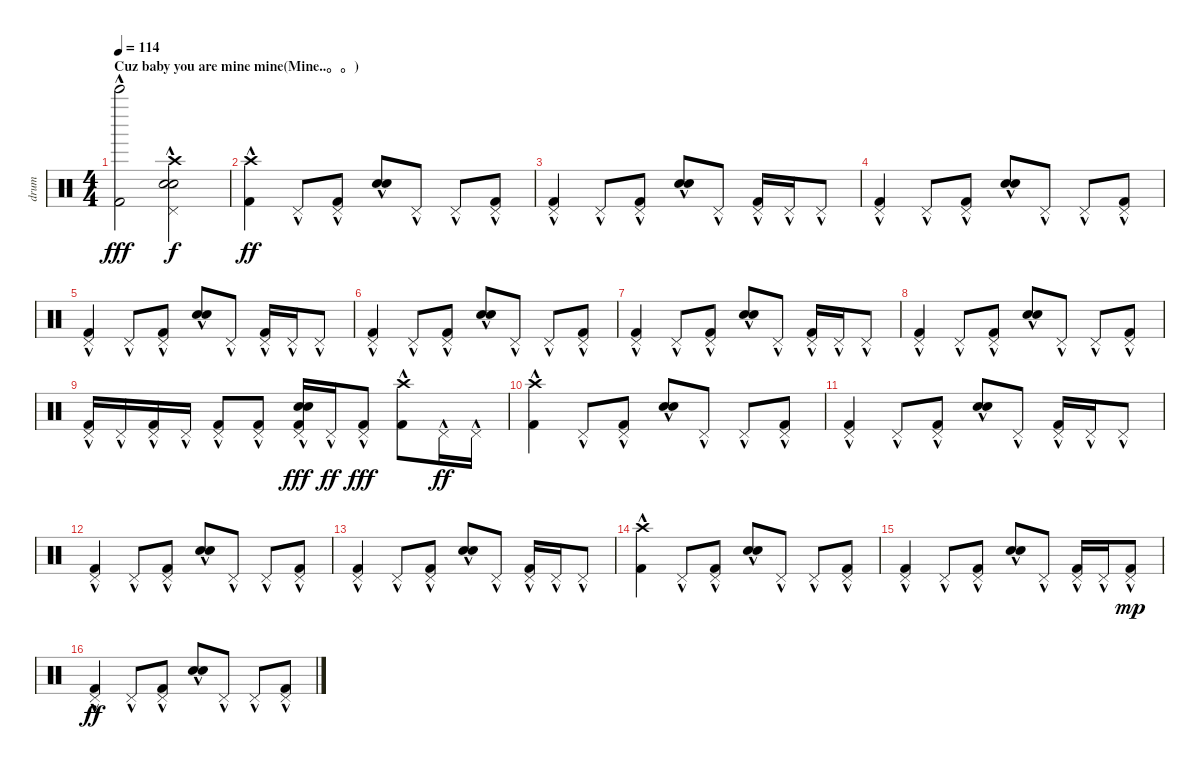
\track ("drum" "drum") {instrument percussion}
\staff {score}
\articulation defaults
\ts (4 4)
\section ("" "Cuz baby you are mine mine(Mine..。。)")
\tempo 114
\clef neutral
\ks c
("Bell Tree (hit)"{hac} "Kick (hit) 2"{hac}).2{dy fff} ("Crash high (hit)"{hac} "Pedal Hi-Hat (hit)"{hac} "Hand Clap (hit)"{hac} "Snare (hit) 2"{hac}).2{dy f} |
("Crash high (hit)"{hac} "Kick (hit) 2"{hac}).4{dy ff} "Pedal Hi-Hat (hit)"{hac}.8 ("Pedal Hi-Hat (hit)"{hac} "Kick (hit) 2"{hac}).8 ("Snare (hit) 2"{hac} "Hand Clap (hit)"{hac}).8 "Pedal Hi-Hat (hit)"{hac}.8 "Pedal Hi-Hat (hit)"{hac}.8 ("Pedal Hi-Hat (hit)"{hac} "Kick (hit) 2"{hac}).8 |
("Pedal Hi-Hat (hit)"{hac} "Kick (hit) 2"{hac}).4 "Pedal Hi-Hat (hit)"{hac}.8 ("Pedal Hi-Hat (hit)"{hac} "Kick (hit) 2"{hac}).8 ("Snare (hit) 2"{hac} "Hand Clap (hit)"{hac}).8 "Pedal Hi-Hat (hit)"{hac}.8 ("Pedal Hi-Hat (hit)"{hac} "Kick (hit) 2"{hac}).16 "Pedal Hi-Hat (hit)"{hac}.16 "Pedal Hi-Hat (hit)"{hac}.8 |
("Pedal Hi-Hat (hit)"{hac} "Kick (hit) 2"{hac}).4 "Pedal Hi-Hat (hit)"{hac}.8 ("Pedal Hi-Hat (hit)"{hac} "Kick (hit) 2"{hac}).8 ("Snare (hit) 2"{hac} "Hand Clap (hit)"{hac}).8 "Pedal Hi-Hat (hit)"{hac}.8 "Pedal Hi-Hat (hit)"{hac}.8 ("Pedal Hi-Hat (hit)"{hac} "Kick (hit) 2"{hac}).8 |
("Pedal Hi-Hat (hit)"{hac} "Kick (hit) 2"{hac}).4 "Pedal Hi-Hat (hit)"{hac}.8 ("Pedal Hi-Hat (hit)"{hac} "Kick (hit) 2"{hac}).8 ("Snare (hit) 2"{hac} "Hand Clap (hit)"{hac}).8 "Pedal Hi-Hat (hit)"{hac}.8 ("Pedal Hi-Hat (hit)"{hac} "Kick (hit) 2"{hac}).16 "Pedal Hi-Hat (hit)"{hac}.16 "Pedal Hi-Hat (hit)"{hac}.8 |
("Pedal Hi-Hat (hit)"{hac} "Kick (hit) 2"{hac}).4 "Pedal Hi-Hat (hit)"{hac}.8 ("Pedal Hi-Hat (hit)"{hac} "Kick (hit) 2"{hac}).8 ("Snare (hit) 2"{hac} "Hand Clap (hit)"{hac}).8 "Pedal Hi-Hat (hit)"{hac}.8 "Pedal Hi-Hat (hit)"{hac}.8 ("Pedal Hi-Hat (hit)"{hac} "Kick (hit) 2"{hac}).8 |
("Pedal Hi-Hat (hit)"{hac} "Kick (hit) 2"{hac}).4 "Pedal Hi-Hat (hit)"{hac}.8 ("Pedal Hi-Hat (hit)"{hac} "Kick (hit) 2"{hac}).8 ("Snare (hit) 2"{hac} "Hand Clap (hit)"{hac}).8 "Pedal Hi-Hat (hit)"{hac}.8 ("Pedal Hi-Hat (hit)"{hac} "Kick (hit) 2"{hac}).16 "Pedal Hi-Hat (hit)"{hac}.16 "Pedal Hi-Hat (hit)"{hac}.8 |
("Pedal Hi-Hat (hit)"{hac} "Kick (hit) 2"{hac}).4 "Pedal Hi-Hat (hit)"{hac}.8 ("Pedal Hi-Hat (hit)"{hac} "Kick (hit) 2"{hac}).8 ("Snare (hit) 2"{hac} "Hand Clap (hit)"{hac}).8 "Pedal Hi-Hat (hit)"{hac}.8 "Pedal Hi-Hat (hit)"{hac}.8 ("Pedal Hi-Hat (hit)"{hac} "Kick (hit) 2"{hac}).8 |
("Pedal Hi-Hat (hit)"{hac} "Kick (hit) 2"{hac}).16 "Pedal Hi-Hat (hit)"{hac}.16 ("Pedal Hi-Hat (hit)"{hac} "Kick (hit) 2"{hac}).16 "Pedal Hi-Hat (hit)"{hac}.16 ("Pedal Hi-Hat (hit)"{hac} "Kick (hit) 2"{hac}).8 ("Pedal Hi-Hat (hit)"{hac} "Kick (hit) 2"{hac}).8 ("Pedal Hi-Hat (hit)"{hac} "Snare (hit) 2"{hac} "Hand Clap (hit)"{hac} "Kick (hit) 2"{hac}).16{dy fff} "Pedal Hi-Hat (hit)"{hac}.16{dy ff} ("Pedal Hi-Hat (hit)"{hac} "Kick (hit) 2"{hac}).8{dy fff} ("Crash high (hit)"{hac} "Kick (hit) 2"{hac}).8 "Pedal Hi-Hat (hit)"{hac}.16{dy ff} "Pedal Hi-Hat (hit)"{hac}.16 |
("Crash high (hit)"{hac} "Kick (hit) 2"{hac}).4 "Pedal Hi-Hat (hit)"{hac}.8 ("Pedal Hi-Hat (hit)"{hac} "Kick (hit) 2"{hac}).8 ("Snare (hit) 2"{hac} "Hand Clap (hit)"{hac}).8 "Pedal Hi-Hat (hit)"{hac}.8 "Pedal Hi-Hat (hit)"{hac}.8 ("Pedal Hi-Hat (hit)"{hac} "Kick (hit) 2"{hac}).8 |
("Pedal Hi-Hat (hit)"{hac} "Kick (hit) 2"{hac}).4 "Pedal Hi-Hat (hit)"{hac}.8 ("Pedal Hi-Hat (hit)"{hac} "Kick (hit) 2"{hac}).8 ("Snare (hit) 2"{hac} "Hand Clap (hit)"{hac}).8 "Pedal Hi-Hat (hit)"{hac}.8 ("Pedal Hi-Hat (hit)"{hac} "Kick (hit) 2"{hac}).16 "Pedal Hi-Hat (hit)"{hac}.16 "Pedal Hi-Hat (hit)"{hac}.8 |
("Pedal Hi-Hat (hit)"{hac} "Kick (hit) 2"{hac}).4 "Pedal Hi-Hat (hit)"{hac}.8 ("Pedal Hi-Hat (hit)"{hac} "Kick (hit) 2"{hac}).8 ("Snare (hit) 2"{hac} "Hand Clap (hit)"{hac}).8 "Pedal Hi-Hat (hit)"{hac}.8 "Pedal Hi-Hat (hit)"{hac}.8 ("Pedal Hi-Hat (hit)"{hac} "Kick (hit) 2"{hac}).8 |
("Pedal Hi-Hat (hit)"{hac} "Kick (hit) 2"{hac}).4 "Pedal Hi-Hat (hit)"{hac}.8 ("Pedal Hi-Hat (hit)"{hac} "Kick (hit) 2"{hac}).8 ("Snare (hit) 2"{hac} "Hand Clap (hit)"{hac}).8 "Pedal Hi-Hat (hit)"{hac}.8 ("Pedal Hi-Hat (hit)"{hac} "Kick (hit) 2"{hac}).16 "Pedal Hi-Hat (hit)"{hac}.16 "Pedal Hi-Hat (hit)"{hac}.8 |
("Crash high (hit)"{hac} "Kick (hit) 2"{hac}).4 "Pedal Hi-Hat (hit)"{hac}.8 ("Pedal Hi-Hat (hit)"{hac} "Kick (hit) 2"{hac}).8 ("Snare (hit) 2"{hac} "Hand Clap (hit)"{hac}).8 "Pedal Hi-Hat (hit)"{hac}.8 "Pedal Hi-Hat (hit)"{hac}.8 ("Pedal Hi-Hat (hit)"{hac} "Kick (hit) 2"{hac}).8 |
("Pedal Hi-Hat (hit)"{hac} "Kick (hit) 2"{hac}).4 "Pedal Hi-Hat (hit)"{hac}.8 ("Pedal Hi-Hat (hit)"{hac} "Kick (hit) 2"{hac}).8 ("Snare (hit) 2"{hac} "Hand Clap (hit)"{hac}).8 "Pedal Hi-Hat (hit)"{hac}.8 ("Pedal Hi-Hat (hit)"{hac} "Kick (hit) 2"{hac}).16 "Pedal Hi-Hat (hit)"{hac}.16 ("Pedal Hi-Hat (hit)"{hac} "Kick (hit) 2").8{dy mp} |
("Pedal Hi-Hat (hit)"{hac} "Kick (hit) 2"{hac}).4{dy ff} "Pedal Hi-Hat (hit)"{hac}.8 ("Pedal Hi-Hat (hit)"{hac} "Kick (hit) 2"{hac}).8 ("Snare (hit) 2"{hac} "Hand Clap (hit)"{hac}).8 "Pedal Hi-Hat (hit)"{hac}.8 "Pedal Hi-Hat (hit)"{hac}.8 ("Pedal Hi-Hat (hit)"{hac} "Kick (hit) 2"{hac}).8
